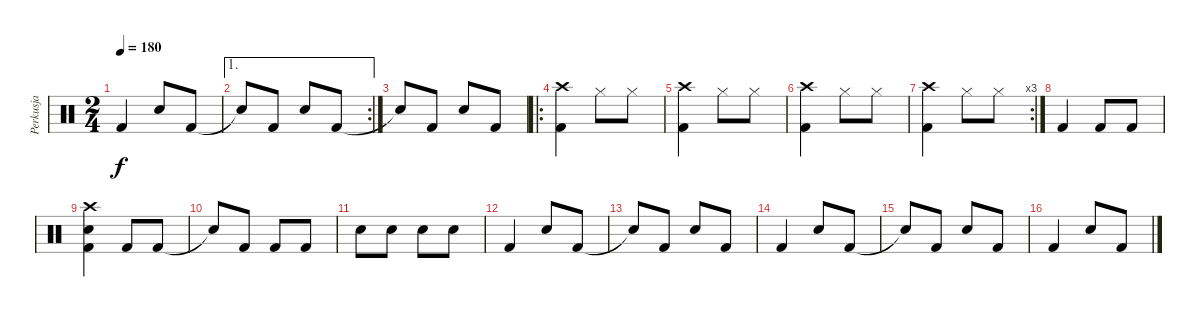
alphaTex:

\track ("Perkusja" "Perkusja") {instrument percussion}
\staff {score}
\articulation defaults
\ts (2 4)
\tempo 180
\clef neutral
\ks c "Kick (hit) 2".4{dy f} "Snare (hit) 2".8 "Kick (hit) 2".8
|
\ae 1
\rc 2 "Snare (hit)"{t}.8 "Kick (hit) 2".8 "Snare (hit) 2".8 "Kick (hit) 2".8
|
"Snare (hit)"{t}.8 "Kick (hit) 2".8 "Snare (hit) 2".8 "Kick (hit) 2".8 |
\ro
("Crash high (hit)" "Kick (hit) 2").4 "Hi-Hat (closed)".8 "Hi-Hat (closed)".8 |
("Crash high (hit)" "Kick (hit) 2").4 "Hi-Hat (closed)".8 "Hi-Hat (closed)".8 |
("Crash high (hit)" "Kick (hit) 2").4 "Hi-Hat (closed)".8 "Hi-Hat (closed)".8 |
\rc 3
("Crash high (hit)" "Kick (hit) 2").4 "Hi-Hat (closed)".8 "Hi-Hat (closed)".8 |
"Kick (hit) 2".4 "Kick (hit) 2".8 "Kick (hit) 2".8 |
("Snare (hit) 2" "Crash high (hit)" "Kick (hit) 2").4 "Kick (hit) 2".8 "Kick (hit) 2".8 |
"Snare (hit)"{t}.8 "Kick (hit) 2".8 "Kick (hit) 2".8 "Kick (hit) 2".8 |
"Snare (hit) 2".8 "Snare (hit) 2".8 "Snare (hit) 2".8 "Snare (hit) 2".8 |
"Kick (hit) 2".4 "Snare (hit) 2".8 "Kick (hit) 2".8 |
"Snare (hit)"{t}.8 "Kick (hit) 2".8 "Snare (hit) 2".8 "Kick (hit) 2".8 |
"Kick (hit) 2".4 "Snare (hit) 2".8 "Kick (hit) 2".8 |
"Snare (hit)"{t}.8 "Kick (hit) 2".8 "Snare (hit) 2".8 "Kick (hit) 2".8 |
"Kick (hit) 2".4 "Snare (hit) 2".8 "Kick (hit) 2".8
